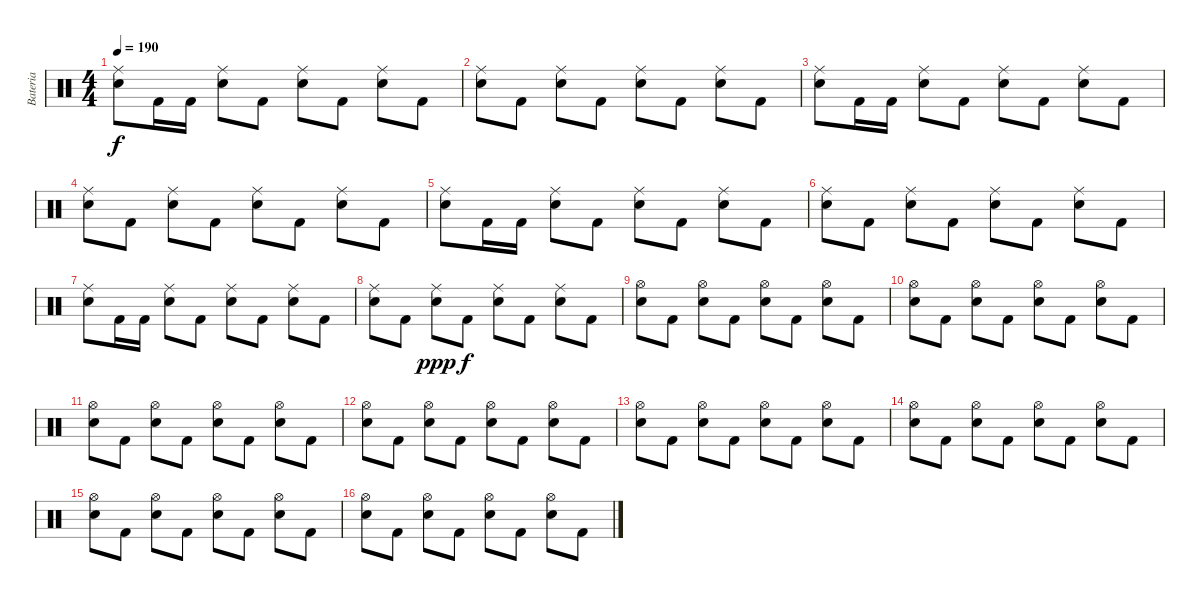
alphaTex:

\track ("Bateria" "Bateria") {instrument percussion}
\staff {score}
\articulation defaults
\ts (4 4)
\tempo 190
\clef neutral
\ks c
("Ride (middle)" "Electric Snare (hit)").8{dy f} "Kick (hit) 2".16 "Kick (hit) 2".16 ("Ride (middle)" "Electric Snare (hit)").8 "Kick (hit) 2".8 ("Ride (middle)" "Electric Snare (hit)").8 "Kick (hit) 2".8 ("Ride (middle)" "Electric Snare (hit)").8 "Kick (hit) 2".8 |
("Ride (middle)" "Electric Snare (hit)").8 "Kick (hit) 2".8 ("Ride (middle)" "Electric Snare (hit)").8 "Kick (hit) 2".8 ("Ride (middle)" "Electric Snare (hit)").8 "Kick (hit) 2".8 ("Ride (middle)" "Electric Snare (hit)").8 "Kick (hit) 2".8 |
("Ride (middle)" "Electric Snare (hit)").8 "Kick (hit) 2".16 "Kick (hit) 2".16 ("Ride (middle)" "Electric Snare (hit)").8 "Kick (hit) 2".8 ("Ride (middle)" "Electric Snare (hit)").8 "Kick (hit) 2".8 ("Ride (middle)" "Electric Snare (hit)").8 "Kick (hit) 2".8 |
("Ride (middle)" "Electric Snare (hit)").8 "Kick (hit) 2".8 ("Ride (middle)" "Electric Snare (hit)").8 "Kick (hit) 2".8 ("Ride (middle)" "Electric Snare (hit)").8 "Kick (hit) 2".8 ("Ride (middle)" "Electric Snare (hit)").8 "Kick (hit) 2".8 |
("Ride (middle)" "Electric Snare (hit)").8 "Kick (hit) 2".16 "Kick (hit) 2".16 ("Ride (middle)" "Electric Snare (hit)").8 "Kick (hit) 2".8 ("Ride (middle)" "Electric Snare (hit)").8 "Kick (hit) 2".8 ("Ride (middle)" "Electric Snare (hit)").8 "Kick (hit) 2".8 |
("Ride (middle)" "Electric Snare (hit)").8 "Kick (hit) 2".8 ("Ride (middle)" "Electric Snare (hit)").8 "Kick (hit) 2".8 ("Ride (middle)" "Electric Snare (hit)").8 "Kick (hit) 2".8 ("Ride (middle)" "Electric Snare (hit)").8 "Kick (hit) 2".8 |
("Ride (middle)" "Electric Snare (hit)").8 "Kick (hit) 2".16 "Kick (hit) 2".16 ("Ride (middle)" "Electric Snare (hit)").8 "Kick (hit) 2".8 ("Ride (middle)" "Electric Snare (hit)").8 "Kick (hit) 2".8 ("Ride (middle)" "Electric Snare (hit)").8 "Kick (hit) 2".8 |
("Ride (middle)" "Electric Snare (hit)").8 "Kick (hit) 2".8 ("Ride (middle)" "Electric Snare (hit)").8{dy ppp} "Kick (hit) 2".8{dy f} ("Ride (middle)" "Electric Snare (hit)").8 "Kick (hit) 2".8 ("Ride (middle)" "Electric Snare (hit)").8 "Kick (hit) 2".8 |
("Hi-Hat (open)" "Electric Snare (hit)").8 "Kick (hit) 2".8 ("Hi-Hat (open)" "Electric Snare (hit)").8 "Kick (hit) 2".8 ("Hi-Hat (open)" "Electric Snare (hit)").8 "Kick (hit) 2".8 ("Hi-Hat (open)" "Electric Snare (hit)").8 "Kick (hit) 2".8 |
("Hi-Hat (open)" "Electric Snare (hit)").8 "Kick (hit) 2".8 ("Hi-Hat (open)" "Electric Snare (hit)").8 "Kick (hit) 2".8 ("Hi-Hat (open)" "Electric Snare (hit)").8 "Kick (hit) 2".8 ("Hi-Hat (open)" "Electric Snare (hit)").8 "Kick (hit) 2".8 |
("Hi-Hat (open)" "Electric Snare (hit)").8 "Kick (hit) 2".8 ("Hi-Hat (open)" "Electric Snare (hit)").8 "Kick (hit) 2".8 ("Hi-Hat (open)" "Electric Snare (hit)").8 "Kick (hit) 2".8 ("Hi-Hat (open)" "Electric Snare (hit)").8 "Kick (hit) 2".8 |
("Hi-Hat (open)" "Electric Snare (hit)").8 "Kick (hit) 2".8 ("Hi-Hat (open)" "Electric Snare (hit)").8 "Kick (hit) 2".8 ("Hi-Hat (open)" "Electric Snare (hit)").8 "Kick (hit) 2".8 ("Hi-Hat (open)" "Electric Snare (hit)").8 "Kick (hit) 2".8 |
("Hi-Hat (open)" "Electric Snare (hit)").8 "Kick (hit) 2".8 ("Hi-Hat (open)" "Electric Snare (hit)").8 "Kick (hit) 2".8 ("Hi-Hat (open)" "Electric Snare (hit)").8 "Kick (hit) 2".8 ("Hi-Hat (open)" "Electric Snare (hit)").8 "Kick (hit) 2".8 |
("Hi-Hat (open)" "Electric Snare (hit)").8 "Kick (hit) 2".8 ("Hi-Hat (open)" "Electric Snare (hit)").8 "Kick (hit) 2".8 ("Hi-Hat (open)" "Electric Snare (hit)").8 "Kick (hit) 2".8 ("Hi-Hat (open)" "Electric Snare (hit)").8 "Kick (hit) 2".8 |
("Hi-Hat (open)" "Electric Snare (hit)").8 "Kick (hit) 2".8 ("Hi-Hat (open)" "Electric Snare (hit)").8 "Kick (hit) 2".8 ("Hi-Hat (open)" "Electric Snare (hit)").8 "Kick (hit) 2".8 ("Hi-Hat (open)" "Electric Snare (hit)").8 "Kick (hit) 2".8 |
("Hi-Hat (open)" "Electric Snare (hit)").8 "Kick (hit) 2".8 ("Hi-Hat (open)" "Electric Snare (hit)").8 "Kick (hit) 2".8 ("Hi-Hat (open)" "Electric Snare (hit)").8 "Kick (hit) 2".8 ("Hi-Hat (open)" "Electric Snare (hit)").8 "Kick (hit) 2".8
